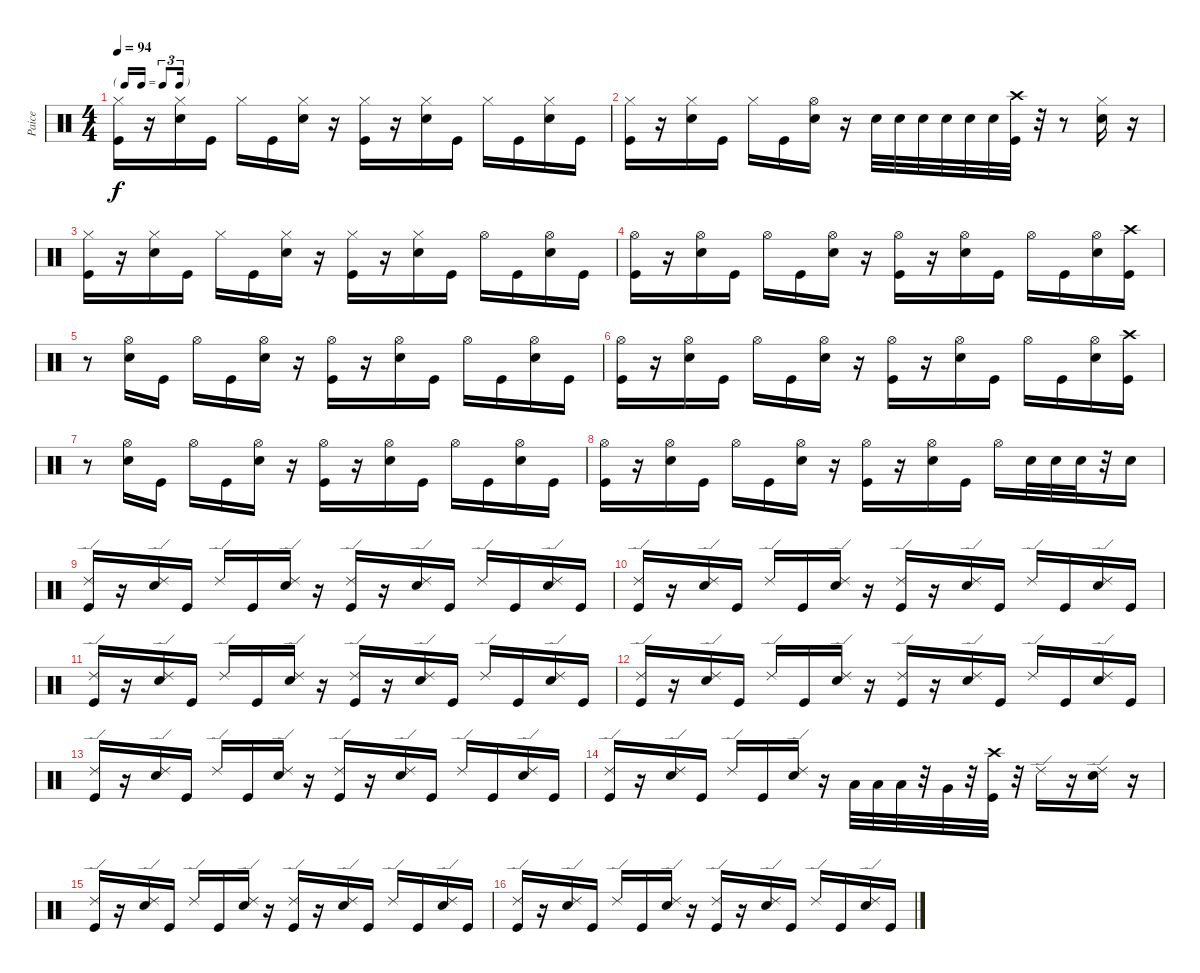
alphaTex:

\track ("Paice" "Paice") {instrument percussion}
\staff {score}
\articulation defaults
\ts (4 4)
\tf triplet16th
\tempo 94
\clef neutral
\ks c
("Hi-Hat (closed)" "Kick (hit)").16{dy f} r.16 ("Hi-Hat (closed)" "Snare (hit) 2").16 "Kick (hit)".16 "Hi-Hat (closed)".16 "Kick (hit)".16 ("Hi-Hat (closed)" "Snare (hit) 2").16 r.16 ("Hi-Hat (closed)" "Kick (hit)").16 r.16 ("Hi-Hat (closed)" "Snare (hit) 2").16 "Kick (hit)".16 "Hi-Hat (closed)".16 "Kick (hit)".16 ("Hi-Hat (closed)" "Snare (hit) 2").16 "Kick (hit)".16 |
("Hi-Hat (closed)" "Kick (hit)").16 r.16 ("Hi-Hat (closed)" "Snare (hit) 2").16 "Kick (hit)".16 "Hi-Hat (closed)".16 "Kick (hit)".16 ("Hi-Hat (open)" "Snare (hit) 2").16 r.16 "Snare (hit) 2".32 "Snare (hit) 2".32 "Snare (hit) 2".32 "Snare (hit) 2".32 "Snare (hit) 2".32 "Snare (hit) 2".32 ("Crash high (hit)" "Kick (hit)").32 r.32 r.8 ("Snare (hit) 2" "Hi-Hat (closed)").16 r.16 |
("Hi-Hat (closed)" "Kick (hit)").16 r.16 ("Hi-Hat (closed)" "Snare (hit) 2").16 "Kick (hit)".16 "Hi-Hat (closed)".16 "Kick (hit)".16 ("Hi-Hat (closed)" "Snare (hit) 2").16 r.16 ("Hi-Hat (closed)" "Kick (hit)").16 r.16 ("Hi-Hat (closed)" "Snare (hit) 2").16 "Kick (hit)".16 "Hi-Hat (open)".16 "Kick (hit)".16 ("Hi-Hat (open)" "Snare (hit) 2").16 "Kick (hit)".16 |
("Hi-Hat (open)" "Kick (hit)").16 r.16 ("Hi-Hat (open)" "Snare (hit) 2").16 "Kick (hit)".16 "Hi-Hat (open)".16 "Kick (hit)".16 ("Hi-Hat (open)" "Snare (hit) 2").16 r.16 ("Hi-Hat (open)" "Kick (hit)").16 r.16 ("Hi-Hat (open)" "Snare (hit) 2").16 "Kick (hit)".16 "Hi-Hat (open)".16 "Kick (hit)".16 ("Hi-Hat (open)" "Snare (hit) 2").16 ("Crash high (hit)" "Kick (hit)").16 |
r.8 ("Hi-Hat (open)" "Snare (hit) 2").16 "Kick (hit)".16 "Hi-Hat (open)".16 "Kick (hit)".16 ("Hi-Hat (open)" "Snare (hit) 2").16 r.16 ("Hi-Hat (open)" "Kick (hit)").16 r.16 ("Hi-Hat (open)" "Snare (hit) 2").16 "Kick (hit)".16 "Hi-Hat (open)".16 "Kick (hit)".16 ("Hi-Hat (open)" "Snare (hit) 2").16 "Kick (hit)".16 |
("Hi-Hat (open)" "Kick (hit)").16 r.16 ("Hi-Hat (open)" "Snare (hit) 2").16 "Kick (hit)".16 "Hi-Hat (open)".16 "Kick (hit)".16 ("Hi-Hat (open)" "Snare (hit) 2").16 r.16 ("Hi-Hat (open)" "Kick (hit)").16 r.16 ("Hi-Hat (open)" "Snare (hit) 2").16 "Kick (hit)".16 "Hi-Hat (open)".16 "Kick (hit)".16 ("Hi-Hat (open)" "Snare (hit) 2").16 ("Crash high (hit)" "Kick (hit)").16 |
r.8 ("Hi-Hat (open)" "Snare (hit) 2").16 "Kick (hit)".16 "Hi-Hat (open)".16 "Kick (hit)".16 ("Hi-Hat (open)" "Snare (hit) 2").16 r.16 ("Hi-Hat (open)" "Kick (hit)").16 r.16 ("Hi-Hat (open)" "Snare (hit) 2").16 "Kick (hit)".16 "Hi-Hat (open)".16 "Kick (hit)".16 ("Hi-Hat (open)" "Snare (hit) 2").16 "Kick (hit)".16 |
("Hi-Hat (open)" "Kick (hit)").16 r.16 ("Hi-Hat (open)" "Snare (hit) 2").16 "Kick (hit)".16 "Hi-Hat (open)".16 "Kick (hit)".16 ("Hi-Hat (open)" "Snare (hit) 2").16 r.16 ("Hi-Hat (open)" "Kick (hit)").16 r.16 ("Hi-Hat (open)" "Snare (hit) 2").16 "Kick (hit)".16 "Hi-Hat (open)".16 "Snare (hit) 2".32 "Snare (hit) 2".32 "Snare (hit) 2".32 r.32 "Snare (hit) 2".16 |
("Ride (edge) 2" "Kick (hit)").16 r.16 ("Ride (edge) 2" "Snare (hit) 2").16 "Kick (hit)".16 "Ride (edge) 2".16 "Kick (hit)".16 ("Ride (edge) 2" "Snare (hit) 2").16 r.16 ("Ride (edge) 2" "Kick (hit)").16 r.16 ("Ride (edge) 2" "Snare (hit) 2").16 "Kick (hit)".16 "Ride (edge) 2".16 "Kick (hit)".16 ("Ride (edge) 2" "Snare (hit) 2").16 "Kick (hit)".16 |
("Ride (edge) 2" "Kick (hit)").16 r.16 ("Ride (edge) 2" "Snare (hit) 2").16 "Kick (hit)".16 "Ride (edge) 2".16 "Kick (hit)".16 ("Ride (edge) 2" "Snare (hit) 2").16 r.16 ("Ride (edge) 2" "Kick (hit)").16 r.16 ("Ride (edge) 2" "Snare (hit) 2").16 "Kick (hit)".16 "Ride (edge) 2".16 "Kick (hit)".16 ("Ride (edge) 2" "Snare (hit) 2").16 "Kick (hit)".16 |
("Ride (edge) 2" "Kick (hit)").16 r.16 ("Ride (edge) 2" "Snare (hit) 2").16 "Kick (hit)".16 "Ride (edge) 2".16 "Kick (hit)".16 ("Ride (edge) 2" "Snare (hit) 2").16 r.16 ("Ride (edge) 2" "Kick (hit)").16 r.16 ("Ride (edge) 2" "Snare (hit) 2").16 "Kick (hit)".16 "Ride (edge) 2".16 "Kick (hit)".16 ("Ride (edge) 2" "Snare (hit) 2").16 "Kick (hit)".16 |
("Ride (edge) 2" "Kick (hit)").16 r.16 ("Ride (edge) 2" "Snare (hit) 2").16 "Kick (hit)".16 "Ride (edge) 2".16 "Kick (hit)".16 ("Ride (edge) 2" "Snare (hit) 2").16 r.16 ("Ride (edge) 2" "Kick (hit)").16 r.16 ("Ride (edge) 2" "Snare (hit) 2").16 "Kick (hit)".16 "Ride (edge) 2".16 "Kick (hit)".16 ("Ride (edge) 2" "Snare (hit) 2").16 "Kick (hit)".16 |
("Ride (edge) 2" "Kick (hit)").16 r.16 ("Ride (edge) 2" "Snare (hit) 2").16 "Kick (hit)".16 "Ride (edge) 2".16 "Kick (hit)".16 ("Ride (edge) 2" "Snare (hit) 2").16 r.16 ("Ride (edge) 2" "Kick (hit)").16 r.16 ("Ride (edge) 2" "Snare (hit) 2").16 "Kick (hit)".16 "Ride (edge) 2".16 "Kick (hit)".16 ("Ride (edge) 2" "Snare (hit) 2").16 "Kick (hit)".16 |
("Ride (edge) 2" "Kick (hit)").16 r.16 ("Ride (edge) 2" "Snare (hit) 2").16 "Kick (hit)".16 "Ride (edge) 2".16 "Kick (hit)".16 ("Ride (edge) 2" "Snare (hit) 2").16 r.16 "Low Tom (hit)".32 "Low Tom (hit)".32 "Low Tom (hit)".32 r.32 "Very Low Tom (hit)".32 r.32 ("Crash high (hit)" "Kick (hit)").32 r.32 "Ride (edge) 2".16 r.16 ("Ride (edge) 2" "Snare (hit) 2").16 r.16 |
("Ride (edge) 2" "Kick (hit)").16 r.16 ("Ride (edge) 2" "Snare (hit) 2").16 "Kick (hit)".16 "Ride (edge) 2".16 "Kick (hit)".16 ("Ride (edge) 2" "Snare (hit) 2").16 r.16 ("Ride (edge) 2" "Kick (hit)").16 r.16 ("Ride (edge) 2" "Snare (hit) 2").16 "Kick (hit)".16 "Ride (edge) 2".16 "Kick (hit)".16 ("Ride (edge) 2" "Snare (hit) 2").16 "Kick (hit)".16 |
("Ride (edge) 2" "Kick (hit)").16 r.16 ("Ride (edge) 2" "Snare (hit) 2").16 "Kick (hit)".16 "Ride (edge) 2".16 "Kick (hit)".16 ("Ride (edge) 2" "Snare (hit) 2").16 r.16 ("Ride (edge) 2" "Kick (hit)").16 r.16 ("Ride (edge) 2" "Snare (hit) 2").16 "Kick (hit)".16 "Ride (edge) 2".16 "Kick (hit)".16 ("Ride (edge) 2" "Snare (hit) 2").16 "Kick (hit)".16
